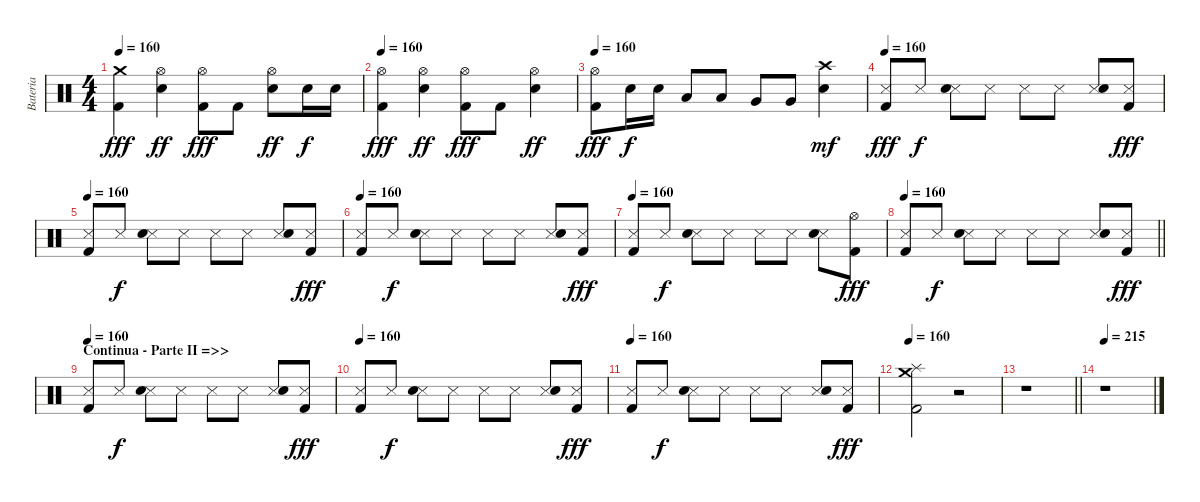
\track ("Bateria" "Bateria") {instrument percussion}
\staff {score}
\articulation defaults
\ts (4 4)
\tempo 160
\clef neutral
\ks c
("Crash medium (hit)" "Kick (hit) 2").4{dy fff} ("Hi-Hat (open)" "Electric Snare (hit)").4{dy ff} ("Hi-Hat (open)" "Kick (hit) 2").8{dy fff} "Kick (hit) 2".8 ("Hi-Hat (open)" "Electric Snare (hit)").8{dy ff} "Electric Snare (hit)".16{dy f} "Electric Snare (hit)".16 |
\tempo 160
("Hi-Hat (open)" "Kick (hit) 2").4{dy fff} ("Hi-Hat (open)" "Electric Snare (hit)").4{dy ff} ("Hi-Hat (open)" "Kick (hit) 2").8{dy fff} "Kick (hit) 2".8 ("Hi-Hat (open)" "Electric Snare (hit)").4{dy ff} |
\tempo 160
("Hi-Hat (open)" "Kick (hit) 2").8{dy fff} "Electric Snare (hit)".16{dy f} "Electric Snare (hit)".16 "Low Tom (hit)".8 "Low Tom (hit)".8 "Very Low Tom (hit)".8 "Very Low Tom (hit)".8 ("Crash high (hit)" "Electric Snare (hit)").4{dy mf} |
\tempo 160
("Metronome (hit)" "Kick (hit) 2").8{dy fff} "Metronome (hit)".8{dy f} ("Metronome (hit)" "Snare (hit) 2").8 "Metronome (hit)".8 "Metronome (hit)".8 "Metronome (hit)".8 ("Metronome (hit)" "Snare (hit) 2").8 ("Metronome (hit)" "Kick (hit) 2").8{dy fff} |
\tempo 160
("Metronome (hit)" "Kick (hit) 2").8 "Metronome (hit)".8{dy f} ("Metronome (hit)" "Snare (hit) 2").8 "Metronome (hit)".8 "Metronome (hit)".8 "Metronome (hit)".8 ("Metronome (hit)" "Snare (hit) 2").8 ("Metronome (hit)" "Kick (hit) 2").8{dy fff} |
\tempo 160
("Metronome (hit)" "Kick (hit) 2").8 "Metronome (hit)".8{dy f} ("Metronome (hit)" "Snare (hit) 2").8 "Metronome (hit)".8 "Metronome (hit)".8 "Metronome (hit)".8 ("Metronome (hit)" "Snare (hit) 2").8 ("Metronome (hit)" "Kick (hit) 2").8{dy fff} |
\tempo 160
("Metronome (hit)" "Kick (hit) 2").8 "Metronome (hit)".8{dy f} ("Metronome (hit)" "Snare (hit) 2").8 "Metronome (hit)".8 "Metronome (hit)".8 "Metronome (hit)".8 ("Metronome (hit)" "Snare (hit) 2").8 ("Hi-Hat (open)" "Kick (hit) 2").8{dy fff} |
\tempo 160
\barLineRight lightlight
("Metronome (hit)" "Kick (hit) 2").8 "Metronome (hit)".8{dy f} ("Metronome (hit)" "Snare (hit) 2").8 "Metronome (hit)".8 "Metronome (hit)".8 "Metronome (hit)".8 ("Metronome (hit)" "Snare (hit) 2").8 ("Metronome (hit)" "Kick (hit) 2").8{dy fff} |
\section ("" "Continua - Parte II =>>")
\tempo 160
("Metronome (hit)" "Kick (hit) 2").8 "Metronome (hit)".8{dy f} ("Metronome (hit)" "Snare (hit) 2").8 "Metronome (hit)".8 "Metronome (hit)".8 "Metronome (hit)".8 ("Metronome (hit)" "Snare (hit) 2").8 ("Metronome (hit)" "Kick (hit) 2").8{dy fff} |
\tempo 160
("Metronome (hit)" "Kick (hit) 2").8 "Metronome (hit)".8{dy f} ("Metronome (hit)" "Snare (hit) 2").8 "Metronome (hit)".8 "Metronome (hit)".8 "Metronome (hit)".8 ("Metronome (hit)" "Snare (hit) 2").8 ("Metronome (hit)" "Kick (hit) 2").8{dy fff} |
\tempo 160
("Metronome (hit)" "Kick (hit) 2").8 "Metronome (hit)".8{dy f} ("Metronome (hit)" "Snare (hit) 2").8 "Metronome (hit)".8 "Metronome (hit)".8 "Metronome (hit)".8 ("Metronome (hit)" "Snare (hit) 2").8 ("Metronome (hit)" "Kick (hit) 2").8{dy fff} |
\tempo 160
("Splash (hit)" "Crash medium (hit)" "Kick (hit) 2").2 r.2 |
\barLineRight lightlight
r.1 |
\tempo 215
r.1
